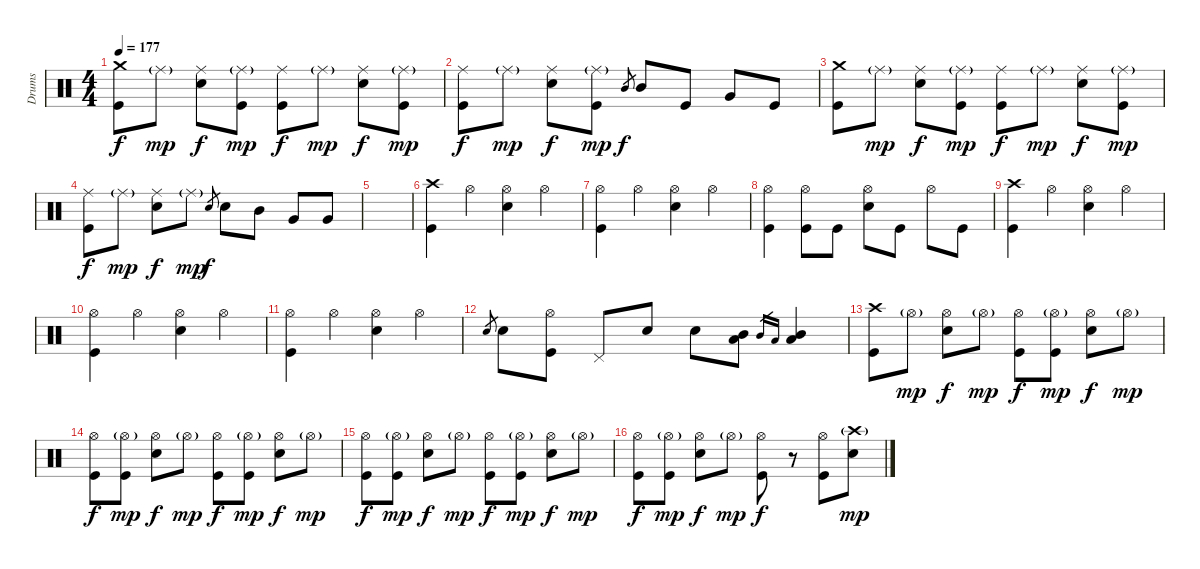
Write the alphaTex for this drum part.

\track ("Drums" "Drums") {instrument percussion}
\staff {score}
\articulation defaults
\ts (4 4)
\tempo 177
\clef neutral
\ks c
("Crash medium (hit)" "Kick (hit)").8{dy f} "Ride (middle)"{g}.8{dy mp} ("Ride (middle)" "Electric Snare (hit)").8{dy f} ("Ride (middle)"{g} "Kick (hit)").8{dy mp} ("Ride (middle)" "Kick (hit)").8{dy f} "Ride (middle)"{g}.8{dy mp} ("Ride (middle)" "Electric Snare (hit)").8{dy f} ("Ride (middle)"{g} "Kick (hit)").8{dy mp} |
("Ride (middle)" "Kick (hit)").8{dy f} "Ride (middle)"{g}.8{dy mp} ("Ride (middle)" "Electric Snare (hit)").8{dy f} ("Ride (middle)"{g} "Kick (hit)").8{dy mp} "Mid Tom (hit)".8{gr dy f} "Mid Tom (hit)".8 "Kick (hit)".8 "Very Low Tom (hit)".8 "Kick (hit)".8 |
("Crash medium (hit)" "Kick (hit)").8 "Ride (middle)"{g}.8{dy mp} ("Ride (middle)" "Electric Snare (hit)").8{dy f} ("Ride (middle)"{g} "Kick (hit)").8{dy mp} ("Ride (middle)" "Kick (hit)").8{dy f} "Ride (middle)"{g}.8{dy mp} ("Ride (middle)" "Electric Snare (hit)").8{dy f} ("Ride (middle)"{g} "Kick (hit)").8{dy mp} |
("Ride (middle)" "Kick (hit)").8{dy f} "Ride (middle)"{g}.8{dy mp} ("Ride (middle)" "Electric Snare (hit)").8{dy f} "Ride (middle)"{g}.8{dy mp} "Electric Snare (hit)".8{gr dy f} "Electric Snare (hit)".8 "Mid Tom (hit)".8 "Very Low Tom (hit)".8 "Very Low Tom (hit)".8 |
|
("Crash high (hit)" "Kick (hit)").4 "Hi-Hat (open)".4 ("Hi-Hat (open)" "Electric Snare (hit)").4 "Hi-Hat (open)".4 |
("Hi-Hat (open)" "Kick (hit)").4 "Hi-Hat (open)".4 ("Hi-Hat (open)" "Electric Snare (hit)").4 "Hi-Hat (open)".4 |
("Hi-Hat (open)" "Kick (hit)").4 ("Hi-Hat (open)" "Kick (hit)").8 "Kick (hit)".8 ("Hi-Hat (open)" "Electric Snare (hit)").8 "Kick (hit)".8 "Hi-Hat (open)".8 "Kick (hit)".8 |
("Crash high (hit)" "Kick (hit)").4 "Hi-Hat (open)".4 ("Hi-Hat (open)" "Electric Snare (hit)").4 "Hi-Hat (open)".4 |
("Hi-Hat (open)" "Kick (hit)").4 "Hi-Hat (open)".4 ("Hi-Hat (open)" "Electric Snare (hit)").4 "Hi-Hat (open)".4 |
("Hi-Hat (open)" "Kick (hit)").4 "Hi-Hat (open)".4 ("Hi-Hat (open)" "Electric Snare (hit)").4 "Hi-Hat (open)".4 |
"Electric Snare (hit)".8{gr} "Electric Snare (hit)".8 ("Hi-Hat (open)" "Kick (hit)").8 "Pedal Hi-Hat (hit)".8 "Electric Snare (hit)".8 "Electric Snare (hit)".8 ("Mid Tom (hit)" "Low Tom (hit)").8 "Mid Tom (hit)".16{gr} "Low Tom (hit)".16{gr} ("Mid Tom (hit)" "Low Tom (hit)").4 |
("Crash high (hit)" "Kick (hit)").8 "Hi-Hat (open)"{g}.8{dy mp} ("Hi-Hat (open)" "Electric Snare (hit)").8{dy f} "Hi-Hat (open)"{g}.8{dy mp} ("Hi-Hat (open)" "Kick (hit)").8{dy f} ("Hi-Hat (open)"{g} "Kick (hit)").8{dy mp} ("Hi-Hat (open)" "Electric Snare (hit)").8{dy f} "Hi-Hat (open)"{g}.8{dy mp} |
("Hi-Hat (open)" "Kick (hit)").8{dy f} ("Hi-Hat (open)"{g} "Kick (hit)").8{dy mp} ("Hi-Hat (open)" "Electric Snare (hit)").8{dy f} "Hi-Hat (open)"{g}.8{dy mp} ("Hi-Hat (open)" "Kick (hit)").8{dy f} ("Hi-Hat (open)"{g} "Kick (hit)").8{dy mp} ("Hi-Hat (open)" "Electric Snare (hit)").8{dy f} "Hi-Hat (open)"{g}.8{dy mp} |
("Hi-Hat (open)" "Kick (hit)").8{dy f} ("Hi-Hat (open)"{g} "Kick (hit)").8{dy mp} ("Hi-Hat (open)" "Electric Snare (hit)").8{dy f} "Hi-Hat (open)"{g}.8{dy mp} ("Hi-Hat (open)" "Kick (hit)").8{dy f} ("Hi-Hat (open)"{g} "Kick (hit)").8{dy mp} ("Hi-Hat (open)" "Electric Snare (hit)").8{dy f} "Hi-Hat (open)"{g}.8{dy mp} |
("Hi-Hat (open)" "Kick (hit)").8{dy f} ("Hi-Hat (open)"{g} "Kick (hit)").8{dy mp} ("Hi-Hat (open)" "Electric Snare (hit)").8{dy f} "Hi-Hat (open)"{g}.8{dy mp} ("Hi-Hat (open)" "Kick (hit)").8{dy f} r.8 ("Hi-Hat (open)" "Kick (hit)").8 ("Crash high (hit)"{g} "Electric Snare (hit)").8{dy mp}
